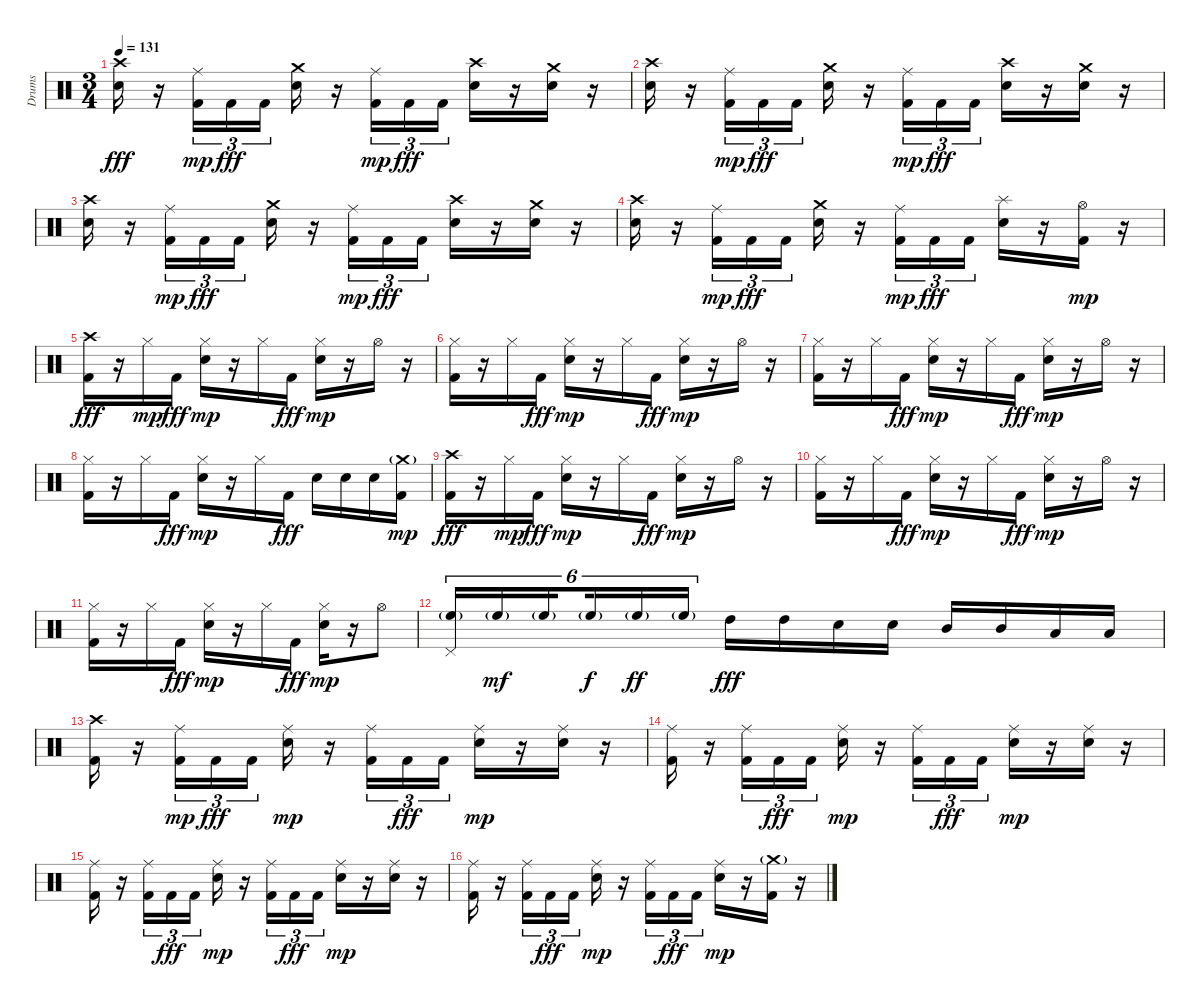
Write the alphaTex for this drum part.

\track ("Drums" "Drums") {instrument percussion}
\staff {score}
\articulation defaults
\ts (3 4)
\tempo 131
\clef neutral
\ks c
("Electric Snare (hit)" "Crash high (hit)").16{dy fff} r.16 ("Kick (hit) 2" "Ride (middle)").16{tu (3 2) dy mp} "Kick (hit) 2".16{tu (3 2) dy fff} "Kick (hit) 2".16{tu (3 2)} ("Electric Snare (hit)" "Crash medium (hit)").16 r.16 ("Kick (hit) 2" "Ride (middle)").16{tu (3 2) dy mp} "Kick (hit) 2".16{tu (3 2) dy fff} "Kick (hit) 2".16{tu (3 2)} ("Electric Snare (hit)" "Crash high (hit)").16 r.16 ("Electric Snare (hit)" "Crash medium (hit)").16 r.16 |
("Electric Snare (hit)" "Crash high (hit)").16 r.16 ("Kick (hit) 2" "Ride (middle)").16{tu (3 2) dy mp} "Kick (hit) 2".16{tu (3 2) dy fff} "Kick (hit) 2".16{tu (3 2)} ("Electric Snare (hit)" "Crash medium (hit)").16 r.16 ("Kick (hit) 2" "Ride (middle)").16{tu (3 2) dy mp} "Kick (hit) 2".16{tu (3 2) dy fff} "Kick (hit) 2".16{tu (3 2)} ("Electric Snare (hit)" "Crash high (hit)").16 r.16 ("Electric Snare (hit)" "Crash medium (hit)").16 r.16 |
("Electric Snare (hit)" "Crash high (hit)").16 r.16 ("Kick (hit) 2" "Ride (middle)").16{tu (3 2) dy mp} "Kick (hit) 2".16{tu (3 2) dy fff} "Kick (hit) 2".16{tu (3 2)} ("Electric Snare (hit)" "Crash medium (hit)").16 r.16 ("Kick (hit) 2" "Ride (middle)").16{tu (3 2) dy mp} "Kick (hit) 2".16{tu (3 2) dy fff} "Kick (hit) 2".16{tu (3 2)} ("Electric Snare (hit)" "Crash high (hit)").16 r.16 ("Electric Snare (hit)" "Crash medium (hit)").16 r.16 |
("Electric Snare (hit)" "Crash high (hit)").16 r.16 ("Kick (hit) 2" "Ride (middle)").16{tu (3 2) dy mp} "Kick (hit) 2".16{tu (3 2) dy fff} "Kick (hit) 2".16{tu (3 2)} ("Electric Snare (hit)" "Crash medium (hit)").16 r.16 ("Kick (hit) 2" "Ride (middle)").16{tu (3 2) dy mp} "Kick (hit) 2".16{tu (3 2) dy fff} "Kick (hit) 2".16{tu (3 2)} ("Electric Snare (hit)" "Splash (hit)").16 r.16 ("Kick (hit) 2" "Hi-Hat (open)").16{dy mp} r.16 |
("Kick (hit) 2" "Crash high (hit)").16{dy fff} r.16 "Hi-Hat (closed)".16{dy mp} "Kick (hit) 2".16{dy fff} ("Electric Snare (hit)" "Hi-Hat (closed)").16{dy mp} r.16 "Hi-Hat (closed)".16 "Kick (hit) 2".16{dy fff} ("Electric Snare (hit)" "Hi-Hat (closed)").16{dy mp} r.16 "Hi-Hat (open)".16 r.16 |
("Kick (hit) 2" "Hi-Hat (closed)").16 r.16 "Hi-Hat (closed)".16 "Kick (hit) 2".16{dy fff} ("Electric Snare (hit)" "Hi-Hat (closed)").16{dy mp} r.16 "Hi-Hat (closed)".16 "Kick (hit) 2".16{dy fff} ("Electric Snare (hit)" "Hi-Hat (closed)").16{dy mp} r.16 "Hi-Hat (open)".16 r.16 |
("Kick (hit) 2" "Hi-Hat (closed)").16 r.16 "Hi-Hat (closed)".16 "Kick (hit) 2".16{dy fff} ("Electric Snare (hit)" "Hi-Hat (closed)").16{dy mp} r.16 "Hi-Hat (closed)".16 "Kick (hit) 2".16{dy fff} ("Electric Snare (hit)" "Hi-Hat (closed)").16{dy mp} r.16 "Hi-Hat (open)".16 r.16 |
("Kick (hit) 2" "Hi-Hat (closed)").16 r.16 "Hi-Hat (closed)".16 "Kick (hit) 2".16{dy fff} ("Electric Snare (hit)" "Hi-Hat (closed)").16{dy mp} r.16 "Hi-Hat (closed)".16 "Kick (hit) 2".16{dy fff} "Electric Snare (hit)".16 "Electric Snare (hit)".16 "Electric Snare (hit)".16 ("Kick (hit) 2" "Crash medium (hit)"{g}).16{dy mp} |
("Kick (hit) 2" "Crash high (hit)").16{dy fff} r.16 "Hi-Hat (closed)".16{dy mp} "Kick (hit) 2".16{dy fff} ("Electric Snare (hit)" "Hi-Hat (closed)").16{dy mp} r.16 "Hi-Hat (closed)".16 "Kick (hit) 2".16{dy fff} ("Electric Snare (hit)" "Hi-Hat (closed)").16{dy mp} r.16 "Hi-Hat (open)".16 r.16 |
("Kick (hit) 2" "Hi-Hat (closed)").16 r.16 "Hi-Hat (closed)".16 "Kick (hit) 2".16{dy fff} ("Electric Snare (hit)" "Hi-Hat (closed)").16{dy mp} r.16 "Hi-Hat (closed)".16 "Kick (hit) 2".16{dy fff} ("Electric Snare (hit)" "Hi-Hat (closed)").16{dy mp} r.16 "Hi-Hat (open)".16 r.16 |
("Kick (hit) 2" "Hi-Hat (closed)").16 r.16 "Hi-Hat (closed)".16 "Kick (hit) 2".16{dy fff} ("Electric Snare (hit)" "Hi-Hat (closed)").16{dy mp} r.16 "Hi-Hat (closed)".16 "Kick (hit) 2".16{dy fff} ("Electric Snare (hit)" "Hi-Hat (closed)").16{dy mp} r.16 "Hi-Hat (open)".8 |
("High Floor Tom (hit)"{g} "Pedal Hi-Hat (hit)").16{tu (6 4)} "High Floor Tom (hit)"{g}.16{tu (6 4) dy mf} "High Floor Tom (hit)"{g}.16{tu (6 4) beam splitsecondary} "High Floor Tom (hit)"{g}.16{tu (6 4) dy f} "High Floor Tom (hit)"{g}.16{tu (6 4) dy ff} "High Floor Tom (hit)"{g}.16{tu (6 4)} "High Tom (hit)".16{dy fff} "High Tom (hit)".16 "Electric Snare (hit)".16 "Electric Snare (hit)".16 "Mid Tom (hit)".16 "Mid Tom (hit)".16 "Low Tom (hit)".16 "Low Tom (hit)".16 |
("Kick (hit) 2" "Crash high (hit)").16 r.16 ("Kick (hit) 2" "Ride (middle)").16{tu (3 2) dy mp} "Kick (hit) 2".16{tu (3 2) dy fff} "Kick (hit) 2".16{tu (3 2)} ("Electric Snare (hit)" "Ride (middle)").16{dy mp} r.16 ("Kick (hit) 2" "Ride (middle)").16{tu (3 2)} "Kick (hit) 2".16{tu (3 2) dy fff} "Kick (hit) 2".16{tu (3 2)} ("Electric Snare (hit)" "Ride (middle)").16{dy mp} r.16 ("Electric Snare (hit)" "Ride (middle)").16 r.16 |
("Kick (hit) 2" "Ride (middle)").16 r.16 ("Kick (hit) 2" "Ride (middle)").16{tu (3 2)} "Kick (hit) 2".16{tu (3 2) dy fff} "Kick (hit) 2".16{tu (3 2)} ("Electric Snare (hit)" "Ride (middle)").16{dy mp} r.16 ("Kick (hit) 2" "Ride (middle)").16{tu (3 2)} "Kick (hit) 2".16{tu (3 2) dy fff} "Kick (hit) 2".16{tu (3 2)} ("Electric Snare (hit)" "Ride (middle)").16{dy mp} r.16 ("Electric Snare (hit)" "Ride (middle)").16 r.16 |
("Kick (hit) 2" "Ride (middle)").16 r.16 ("Kick (hit) 2" "Ride (middle)").16{tu (3 2)} "Kick (hit) 2".16{tu (3 2) dy fff} "Kick (hit) 2".16{tu (3 2)} ("Electric Snare (hit)" "Ride (middle)").16{dy mp} r.16 ("Kick (hit) 2" "Ride (middle)").16{tu (3 2)} "Kick (hit) 2".16{tu (3 2) dy fff} "Kick (hit) 2".16{tu (3 2)} ("Electric Snare (hit)" "Ride (middle)").16{dy mp} r.16 ("Electric Snare (hit)" "Ride (middle)").16 r.16 |
("Kick (hit) 2" "Ride (middle)").16 r.16 ("Kick (hit) 2" "Ride (middle)").16{tu (3 2)} "Kick (hit) 2".16{tu (3 2) dy fff} "Kick (hit) 2".16{tu (3 2)} ("Electric Snare (hit)" "Ride (middle)").16{dy mp} r.16 ("Kick (hit) 2" "Ride (middle)").16{tu (3 2)} "Kick (hit) 2".16{tu (3 2) dy fff} "Kick (hit) 2".16{tu (3 2)} ("Electric Snare (hit)" "Ride (middle)").16{dy mp} r.16 ("Kick (hit) 2" "Crash medium (hit)"{g}).16 r.16
